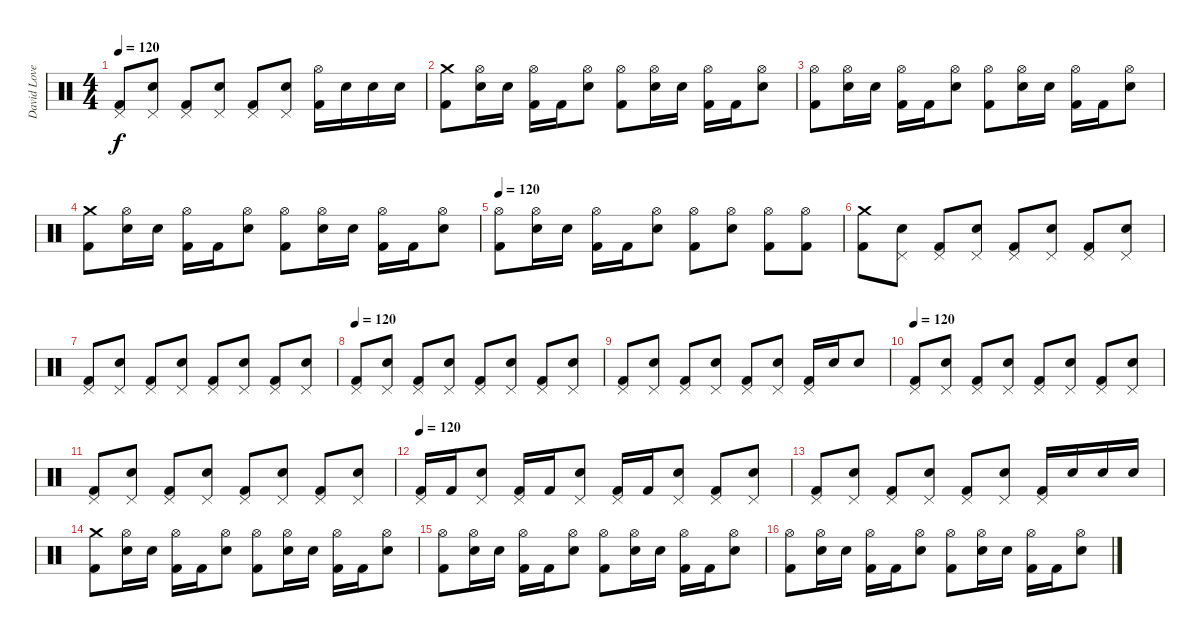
\track ("David Lovering (Drums)" "David Love") {instrument percussion}
\staff {score}
\articulation defaults
\ts (4 4)
\tempo 120
\clef neutral
\ks c
("Pedal Hi-Hat (hit)" "Kick (hit) 2").8{dy f} ("Pedal Hi-Hat (hit)" "Electric Snare (hit)").8 ("Pedal Hi-Hat (hit)" "Kick (hit) 2").8 ("Pedal Hi-Hat (hit)" "Electric Snare (hit)").8 ("Pedal Hi-Hat (hit)" "Kick (hit) 2").8 ("Pedal Hi-Hat (hit)" "Electric Snare (hit)").8 ("Hi-Hat (open)" "Kick (hit) 2").16 "Electric Snare (hit)".16 "Electric Snare (hit)".16 "Electric Snare (hit)".16 |
("Crash medium (hit)" "Kick (hit) 2").8 ("Hi-Hat (open)" "Electric Snare (hit)").16 "Electric Snare (hit)".16 ("Hi-Hat (open)" "Kick (hit) 2").16 "Kick (hit) 2".16 ("Hi-Hat (open)" "Electric Snare (hit)").8 ("Hi-Hat (open)" "Kick (hit) 2").8 ("Hi-Hat (open)" "Electric Snare (hit)").16 "Electric Snare (hit)".16 ("Hi-Hat (open)" "Kick (hit) 2").16 "Kick (hit) 2".16 ("Hi-Hat (open)" "Electric Snare (hit)").8 |
("Hi-Hat (open)" "Kick (hit) 2").8 ("Hi-Hat (open)" "Electric Snare (hit)").16 "Electric Snare (hit)".16 ("Hi-Hat (open)" "Kick (hit) 2").16 "Kick (hit) 2".16 ("Hi-Hat (open)" "Electric Snare (hit)").8 ("Hi-Hat (open)" "Kick (hit) 2").8 ("Hi-Hat (open)" "Electric Snare (hit)").16 "Electric Snare (hit)".16 ("Hi-Hat (open)" "Kick (hit) 2").16 "Kick (hit) 2".16 ("Hi-Hat (open)" "Electric Snare (hit)").8 |
("Crash medium (hit)" "Kick (hit) 2").8 ("Hi-Hat (open)" "Electric Snare (hit)").16 "Electric Snare (hit)".16 ("Hi-Hat (open)" "Kick (hit) 2").16 "Kick (hit) 2".16 ("Hi-Hat (open)" "Electric Snare (hit)").8 ("Hi-Hat (open)" "Kick (hit) 2").8 ("Hi-Hat (open)" "Electric Snare (hit)").16 "Electric Snare (hit)".16 ("Hi-Hat (open)" "Kick (hit) 2").16 "Kick (hit) 2".16 ("Hi-Hat (open)" "Electric Snare (hit)").8 |
\tempo 120
("Hi-Hat (open)" "Kick (hit) 2").8 ("Hi-Hat (open)" "Electric Snare (hit)").16 "Electric Snare (hit)".16 ("Hi-Hat (open)" "Kick (hit) 2").16 "Kick (hit) 2".16 ("Hi-Hat (open)" "Electric Snare (hit)").8 ("Hi-Hat (open)" "Kick (hit) 2").8 ("Hi-Hat (open)" "Electric Snare (hit)").8 ("Hi-Hat (open)" "Kick (hit) 2").8 ("Hi-Hat (open)" "Kick (hit) 2").8 |
("Crash medium (hit)" "Kick (hit) 2").8 ("Pedal Hi-Hat (hit)" "Electric Snare (hit)").8 ("Pedal Hi-Hat (hit)" "Kick (hit) 2").8 ("Pedal Hi-Hat (hit)" "Electric Snare (hit)").8 ("Pedal Hi-Hat (hit)" "Kick (hit) 2").8 ("Pedal Hi-Hat (hit)" "Electric Snare (hit)").8 ("Pedal Hi-Hat (hit)" "Kick (hit) 2").8 ("Pedal Hi-Hat (hit)" "Electric Snare (hit)").8 |
("Pedal Hi-Hat (hit)" "Kick (hit) 2").8 ("Pedal Hi-Hat (hit)" "Electric Snare (hit)").8 ("Pedal Hi-Hat (hit)" "Kick (hit) 2").8 ("Pedal Hi-Hat (hit)" "Electric Snare (hit)").8 ("Pedal Hi-Hat (hit)" "Kick (hit) 2").8 ("Pedal Hi-Hat (hit)" "Electric Snare (hit)").8 ("Pedal Hi-Hat (hit)" "Kick (hit) 2").8 ("Pedal Hi-Hat (hit)" "Electric Snare (hit)").8 |
\tempo 120
("Pedal Hi-Hat (hit)" "Kick (hit) 2").8 ("Pedal Hi-Hat (hit)" "Electric Snare (hit)").8 ("Pedal Hi-Hat (hit)" "Kick (hit) 2").8 ("Pedal Hi-Hat (hit)" "Electric Snare (hit)").8 ("Pedal Hi-Hat (hit)" "Kick (hit) 2").8 ("Pedal Hi-Hat (hit)" "Electric Snare (hit)").8 ("Pedal Hi-Hat (hit)" "Kick (hit) 2").8 ("Pedal Hi-Hat (hit)" "Electric Snare (hit)").8 |
("Pedal Hi-Hat (hit)" "Kick (hit) 2").8 ("Pedal Hi-Hat (hit)" "Electric Snare (hit)").8 ("Pedal Hi-Hat (hit)" "Kick (hit) 2").8 ("Pedal Hi-Hat (hit)" "Electric Snare (hit)").8 ("Pedal Hi-Hat (hit)" "Kick (hit) 2").8 ("Pedal Hi-Hat (hit)" "Electric Snare (hit)").8 ("Pedal Hi-Hat (hit)" "Kick (hit) 2").16 "Electric Snare (hit)".16 "Electric Snare (hit)".8 |
\tempo 120
("Pedal Hi-Hat (hit)" "Kick (hit) 2").8 ("Pedal Hi-Hat (hit)" "Electric Snare (hit)").8 ("Pedal Hi-Hat (hit)" "Kick (hit) 2").8 ("Pedal Hi-Hat (hit)" "Electric Snare (hit)").8 ("Pedal Hi-Hat (hit)" "Kick (hit) 2").8 ("Pedal Hi-Hat (hit)" "Electric Snare (hit)").8 ("Pedal Hi-Hat (hit)" "Kick (hit) 2").8 ("Pedal Hi-Hat (hit)" "Electric Snare (hit)").8 |
("Pedal Hi-Hat (hit)" "Kick (hit) 2").8 ("Pedal Hi-Hat (hit)" "Electric Snare (hit)").8 ("Pedal Hi-Hat (hit)" "Kick (hit) 2").8 ("Pedal Hi-Hat (hit)" "Electric Snare (hit)").8 ("Pedal Hi-Hat (hit)" "Kick (hit) 2").8 ("Pedal Hi-Hat (hit)" "Electric Snare (hit)").8 ("Pedal Hi-Hat (hit)" "Kick (hit) 2").8 ("Pedal Hi-Hat (hit)" "Electric Snare (hit)").8 |
\tempo 120
("Pedal Hi-Hat (hit)" "Kick (hit) 2").16 "Kick (hit) 2".16 ("Pedal Hi-Hat (hit)" "Electric Snare (hit)").8 ("Pedal Hi-Hat (hit)" "Kick (hit) 2").16 "Kick (hit) 2".16 ("Pedal Hi-Hat (hit)" "Electric Snare (hit)").8 ("Pedal Hi-Hat (hit)" "Kick (hit) 2").16 "Kick (hit) 2".16 ("Pedal Hi-Hat (hit)" "Electric Snare (hit)").8 ("Pedal Hi-Hat (hit)" "Kick (hit) 2").8 ("Pedal Hi-Hat (hit)" "Electric Snare (hit)").8 |
("Pedal Hi-Hat (hit)" "Kick (hit) 2").8 ("Pedal Hi-Hat (hit)" "Electric Snare (hit)").8 ("Pedal Hi-Hat (hit)" "Kick (hit) 2").8 ("Pedal Hi-Hat (hit)" "Electric Snare (hit)").8 ("Pedal Hi-Hat (hit)" "Kick (hit) 2").8 ("Pedal Hi-Hat (hit)" "Electric Snare (hit)").8 ("Pedal Hi-Hat (hit)" "Kick (hit) 2").16 "Electric Snare (hit)".16 "Electric Snare (hit)".16 "Electric Snare (hit)".16 |
("Crash medium (hit)" "Kick (hit) 2").8 ("Hi-Hat (open)" "Electric Snare (hit)").16 "Electric Snare (hit)".16 ("Hi-Hat (open)" "Kick (hit) 2").16 "Kick (hit) 2".16 ("Hi-Hat (open)" "Electric Snare (hit)").8 ("Hi-Hat (open)" "Kick (hit) 2").8 ("Hi-Hat (open)" "Electric Snare (hit)").16 "Electric Snare (hit)".16 ("Hi-Hat (open)" "Kick (hit) 2").16 "Kick (hit) 2".16 ("Hi-Hat (open)" "Electric Snare (hit)").8 |
("Hi-Hat (open)" "Kick (hit) 2").8 ("Hi-Hat (open)" "Electric Snare (hit)").16 "Electric Snare (hit)".16 ("Hi-Hat (open)" "Kick (hit) 2").16 "Kick (hit) 2".16 ("Hi-Hat (open)" "Electric Snare (hit)").8 ("Hi-Hat (open)" "Kick (hit) 2").8 ("Hi-Hat (open)" "Electric Snare (hit)").16 "Electric Snare (hit)".16 ("Hi-Hat (open)" "Kick (hit) 2").16 "Kick (hit) 2".16 ("Hi-Hat (open)" "Electric Snare (hit)").8 |
("Hi-Hat (open)" "Kick (hit) 2").8 ("Hi-Hat (open)" "Electric Snare (hit)").16 "Electric Snare (hit)".16 ("Hi-Hat (open)" "Kick (hit) 2").16 "Kick (hit) 2".16 ("Hi-Hat (open)" "Electric Snare (hit)").8 ("Hi-Hat (open)" "Kick (hit) 2").8 ("Hi-Hat (open)" "Electric Snare (hit)").16 "Electric Snare (hit)".16 ("Hi-Hat (open)" "Kick (hit) 2").16 "Kick (hit) 2".16 ("Hi-Hat (open)" "Electric Snare (hit)").8
